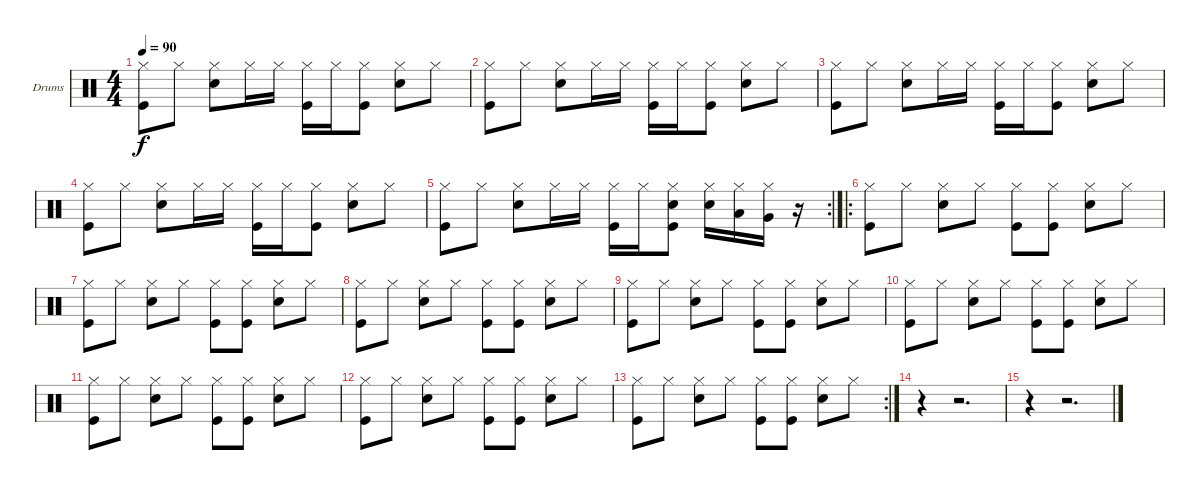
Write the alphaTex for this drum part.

\bracketExtendMode groupsimilarinstruments
\firstSystemTrackNameOrientation horizontal
\otherSystemsTrackNameOrientation horizontal
\track ("Drumkit" "Drums") {instrument percussion}
\staff {score}
\articulation defaults
\ts (4 4)
\tempo 90
\clef neutral
\ks c
("Hi-Hat (closed)" "Kick (hit)").8{dy f} "Hi-Hat (closed)".8 ("Hi-Hat (closed)" "Snare (hit) 2").8 "Hi-Hat (closed)".16 "Hi-Hat (closed)".16 ("Hi-Hat (closed)" "Kick (hit)").16 "Hi-Hat (closed)".16 ("Hi-Hat (closed)" "Kick (hit)").8 ("Hi-Hat (closed)" "Snare (hit) 2").8 "Hi-Hat (closed)".8 |
("Hi-Hat (closed)" "Kick (hit)").8 "Hi-Hat (closed)".8 ("Hi-Hat (closed)" "Snare (hit) 2").8 "Hi-Hat (closed)".16 "Hi-Hat (closed)".16 ("Hi-Hat (closed)" "Kick (hit)").16 "Hi-Hat (closed)".16 ("Hi-Hat (closed)" "Kick (hit)").8 ("Hi-Hat (closed)" "Snare (hit) 2").8 "Hi-Hat (closed)".8 |
("Hi-Hat (closed)" "Kick (hit)").8 "Hi-Hat (closed)".8 ("Hi-Hat (closed)" "Snare (hit) 2").8 "Hi-Hat (closed)".16 "Hi-Hat (closed)".16 ("Hi-Hat (closed)" "Kick (hit)").16 "Hi-Hat (closed)".16 ("Hi-Hat (closed)" "Kick (hit)").8 ("Hi-Hat (closed)" "Snare (hit) 2").8 "Hi-Hat (closed)".8 |
("Hi-Hat (closed)" "Kick (hit)").8 "Hi-Hat (closed)".8 ("Hi-Hat (closed)" "Snare (hit) 2").8 "Hi-Hat (closed)".16 "Hi-Hat (closed)".16 ("Hi-Hat (closed)" "Kick (hit)").16 "Hi-Hat (closed)".16 ("Hi-Hat (closed)" "Kick (hit)").8 ("Hi-Hat (closed)" "Snare (hit) 2").8 "Hi-Hat (closed)".8 |
\rc 2
("Hi-Hat (closed)" "Kick (hit)").8 "Hi-Hat (closed)".8 ("Hi-Hat (closed)" "Snare (hit) 2").8 "Hi-Hat (closed)".16 "Hi-Hat (closed)".16 ("Hi-Hat (closed)" "Kick (hit)").16 "Hi-Hat (closed)".16 ("Hi-Hat (closed)" "Kick (hit)" "Snare (hit) 2").8 ("Hi-Hat (closed)" "Snare (hit) 2").16 ("Hi-Hat (closed)" "Low Tom (hit)").16 ("Hi-Hat (closed)" "Very Low Tom (hit)").16 r.16 |
\ro
("Hi-Hat (closed)" "Kick (hit)").8 "Hi-Hat (closed)".8 ("Hi-Hat (closed)" "Snare (hit) 2").8 "Hi-Hat (closed)".8 ("Hi-Hat (closed)" "Kick (hit)").8 ("Hi-Hat (closed)" "Kick (hit)").8 ("Hi-Hat (closed)" "Snare (hit) 2").8 "Hi-Hat (closed)".8 |
("Hi-Hat (closed)" "Kick (hit)").8 "Hi-Hat (closed)".8 ("Hi-Hat (closed)" "Snare (hit) 2").8 "Hi-Hat (closed)".8 ("Hi-Hat (closed)" "Kick (hit)").8 ("Hi-Hat (closed)" "Kick (hit)").8 ("Hi-Hat (closed)" "Snare (hit) 2").8 "Hi-Hat (closed)".8 |
("Hi-Hat (closed)" "Kick (hit)").8 "Hi-Hat (closed)".8 ("Hi-Hat (closed)" "Snare (hit) 2").8 "Hi-Hat (closed)".8 ("Hi-Hat (closed)" "Kick (hit)").8 ("Hi-Hat (closed)" "Kick (hit)").8 ("Hi-Hat (closed)" "Snare (hit) 2").8 "Hi-Hat (closed)".8 |
("Hi-Hat (closed)" "Kick (hit)").8 "Hi-Hat (closed)".8 ("Hi-Hat (closed)" "Snare (hit) 2").8 "Hi-Hat (closed)".8 ("Hi-Hat (closed)" "Kick (hit)").8 ("Hi-Hat (closed)" "Kick (hit)").8 ("Hi-Hat (closed)" "Snare (hit) 2").8 "Hi-Hat (closed)".8 |
("Hi-Hat (closed)" "Kick (hit)").8 "Hi-Hat (closed)".8 ("Hi-Hat (closed)" "Snare (hit) 2").8 "Hi-Hat (closed)".8 ("Hi-Hat (closed)" "Kick (hit)").8 ("Hi-Hat (closed)" "Kick (hit)").8 ("Hi-Hat (closed)" "Snare (hit) 2").8 "Hi-Hat (closed)".8 |
("Hi-Hat (closed)" "Kick (hit)").8 "Hi-Hat (closed)".8 ("Hi-Hat (closed)" "Snare (hit) 2").8 "Hi-Hat (closed)".8 ("Hi-Hat (closed)" "Kick (hit)").8 ("Hi-Hat (closed)" "Kick (hit)").8 ("Hi-Hat (closed)" "Snare (hit) 2").8 "Hi-Hat (closed)".8 |
("Hi-Hat (closed)" "Kick (hit)").8 "Hi-Hat (closed)".8 ("Hi-Hat (closed)" "Snare (hit) 2").8 "Hi-Hat (closed)".8 ("Hi-Hat (closed)" "Kick (hit)").8 ("Hi-Hat (closed)" "Kick (hit)").8 ("Hi-Hat (closed)" "Snare (hit) 2").8 "Hi-Hat (closed)".8 |
\rc 2
("Hi-Hat (closed)" "Kick (hit)").8 "Hi-Hat (closed)".8 ("Hi-Hat (closed)" "Snare (hit) 2").8 "Hi-Hat (closed)".8 ("Hi-Hat (closed)" "Kick (hit)").8 ("Hi-Hat (closed)" "Kick (hit)").8 ("Hi-Hat (closed)" "Snare (hit) 2").8 "Hi-Hat (closed)".8 |
r.4 r.2{d} |
r.4 r.2{d}
